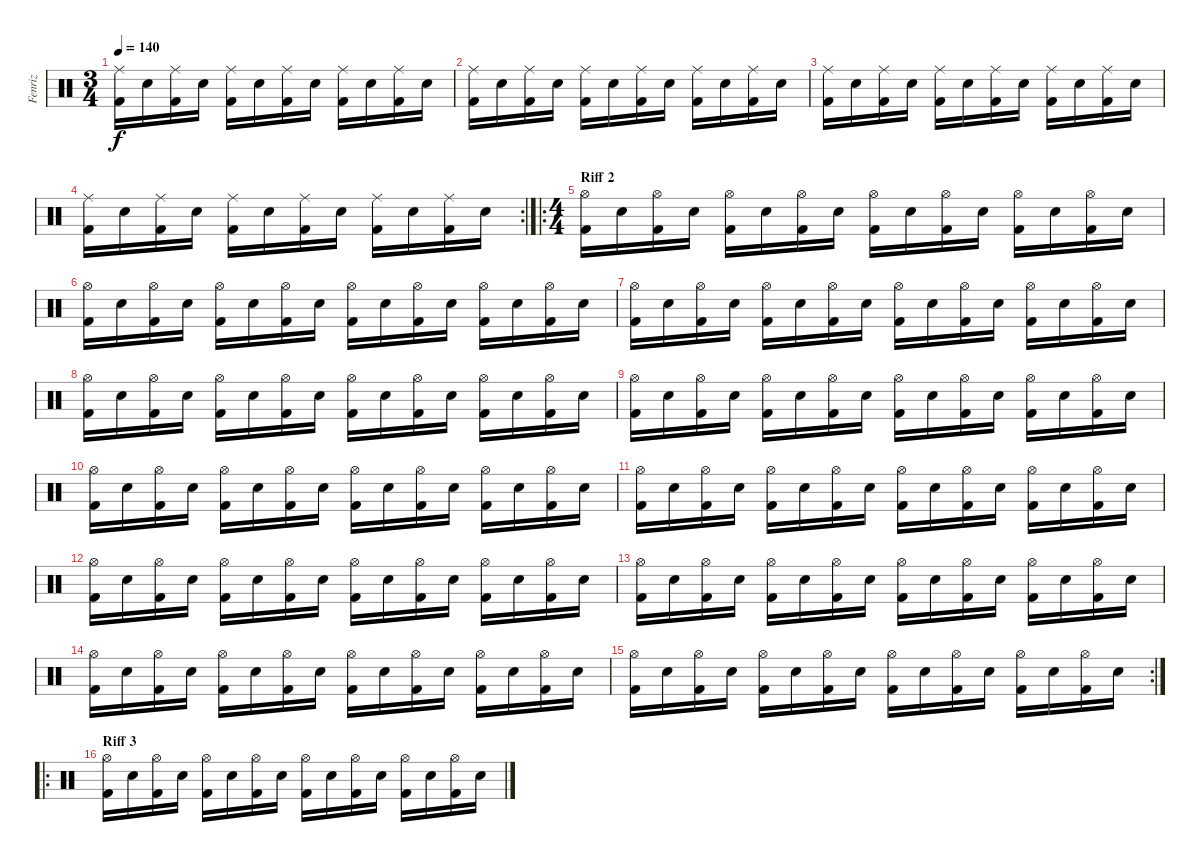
\track ("Fenriz" "Fenriz") {instrument percussion}
\staff {score}
\articulation defaults
\ts (3 4)
\tempo 140
\clef neutral
\ks c
("Ride (middle)" "Kick (hit) 2").16{dy f} "Snare (hit) 2".16 ("Ride (middle)" "Kick (hit) 2").16 "Snare (hit) 2".16 ("Ride (middle)" "Kick (hit) 2").16 "Snare (hit) 2".16 ("Ride (middle)" "Kick (hit) 2").16 "Snare (hit) 2".16 ("Ride (middle)" "Kick (hit) 2").16 "Snare (hit) 2".16 ("Ride (middle)" "Kick (hit) 2").16 "Snare (hit) 2".16 |
("Ride (middle)" "Kick (hit) 2").16 "Snare (hit) 2".16 ("Ride (middle)" "Kick (hit) 2").16 "Snare (hit) 2".16 ("Ride (middle)" "Kick (hit) 2").16 "Snare (hit) 2".16 ("Ride (middle)" "Kick (hit) 2").16 "Snare (hit) 2".16 ("Ride (middle)" "Kick (hit) 2").16 "Snare (hit) 2".16 ("Ride (middle)" "Kick (hit) 2").16 "Snare (hit) 2".16 |
("Ride (middle)" "Kick (hit) 2").16 "Snare (hit) 2".16 ("Ride (middle)" "Kick (hit) 2").16 "Snare (hit) 2".16 ("Ride (middle)" "Kick (hit) 2").16 "Snare (hit) 2".16 ("Ride (middle)" "Kick (hit) 2").16 "Snare (hit) 2".16 ("Ride (middle)" "Kick (hit) 2").16 "Snare (hit) 2".16 ("Ride (middle)" "Kick (hit) 2").16 "Snare (hit) 2".16 |
\rc 2
("Ride (middle)" "Kick (hit) 2").16 "Snare (hit) 2".16 ("Ride (middle)" "Kick (hit) 2").16 "Snare (hit) 2".16 ("Ride (middle)" "Kick (hit) 2").16 "Snare (hit) 2".16 ("Ride (middle)" "Kick (hit) 2").16 "Snare (hit) 2".16 ("Ride (middle)" "Kick (hit) 2").16 "Snare (hit) 2".16 ("Ride (middle)" "Kick (hit) 2").16 "Snare (hit) 2".16 |
\ro
\ts (4 4)
\section ("" "Riff 2")
("Hi-Hat (open)" "Kick (hit) 2").16 "Snare (hit) 2".16 ("Hi-Hat (open)" "Kick (hit) 2").16 "Snare (hit) 2".16 ("Hi-Hat (open)" "Kick (hit) 2").16 "Snare (hit) 2".16 ("Hi-Hat (open)" "Kick (hit) 2").16 "Snare (hit) 2".16 ("Hi-Hat (open)" "Kick (hit) 2").16 "Snare (hit) 2".16 ("Hi-Hat (open)" "Kick (hit) 2").16 "Snare (hit) 2".16 ("Hi-Hat (open)" "Kick (hit) 2").16 "Snare (hit) 2".16 ("Hi-Hat (open)" "Kick (hit) 2").16 "Snare (hit) 2".16 |
("Hi-Hat (open)" "Kick (hit) 2").16 "Snare (hit) 2".16 ("Hi-Hat (open)" "Kick (hit) 2").16 "Snare (hit) 2".16 ("Hi-Hat (open)" "Kick (hit) 2").16 "Snare (hit) 2".16 ("Hi-Hat (open)" "Kick (hit) 2").16 "Snare (hit) 2".16 ("Hi-Hat (open)" "Kick (hit) 2").16 "Snare (hit) 2".16 ("Hi-Hat (open)" "Kick (hit) 2").16 "Snare (hit) 2".16 ("Hi-Hat (open)" "Kick (hit) 2").16 "Snare (hit) 2".16 ("Hi-Hat (open)" "Kick (hit) 2").16 "Snare (hit) 2".16 |
("Hi-Hat (open)" "Kick (hit) 2").16 "Snare (hit) 2".16 ("Hi-Hat (open)" "Kick (hit) 2").16 "Snare (hit) 2".16 ("Hi-Hat (open)" "Kick (hit) 2").16 "Snare (hit) 2".16 ("Hi-Hat (open)" "Kick (hit) 2").16 "Snare (hit) 2".16 ("Hi-Hat (open)" "Kick (hit) 2").16 "Snare (hit) 2".16 ("Hi-Hat (open)" "Kick (hit) 2").16 "Snare (hit) 2".16 ("Hi-Hat (open)" "Kick (hit) 2").16 "Snare (hit) 2".16 ("Hi-Hat (open)" "Kick (hit) 2").16 "Snare (hit) 2".16 |
("Hi-Hat (open)" "Kick (hit) 2").16 "Snare (hit) 2".16 ("Hi-Hat (open)" "Kick (hit) 2").16 "Snare (hit) 2".16 ("Hi-Hat (open)" "Kick (hit) 2").16 "Snare (hit) 2".16 ("Hi-Hat (open)" "Kick (hit) 2").16 "Snare (hit) 2".16 ("Hi-Hat (open)" "Kick (hit) 2").16 "Snare (hit) 2".16 ("Hi-Hat (open)" "Kick (hit) 2").16 "Snare (hit) 2".16 ("Hi-Hat (open)" "Kick (hit) 2").16 "Snare (hit) 2".16 ("Hi-Hat (open)" "Kick (hit) 2").16 "Snare (hit) 2".16 |
("Hi-Hat (open)" "Kick (hit) 2").16 "Snare (hit) 2".16 ("Hi-Hat (open)" "Kick (hit) 2").16 "Snare (hit) 2".16 ("Hi-Hat (open)" "Kick (hit) 2").16 "Snare (hit) 2".16 ("Hi-Hat (open)" "Kick (hit) 2").16 "Snare (hit) 2".16 ("Hi-Hat (open)" "Kick (hit) 2").16 "Snare (hit) 2".16 ("Hi-Hat (open)" "Kick (hit) 2").16 "Snare (hit) 2".16 ("Hi-Hat (open)" "Kick (hit) 2").16 "Snare (hit) 2".16 ("Hi-Hat (open)" "Kick (hit) 2").16 "Snare (hit) 2".16 |
("Hi-Hat (open)" "Kick (hit) 2").16 "Snare (hit) 2".16 ("Hi-Hat (open)" "Kick (hit) 2").16 "Snare (hit) 2".16 ("Hi-Hat (open)" "Kick (hit) 2").16 "Snare (hit) 2".16 ("Hi-Hat (open)" "Kick (hit) 2").16 "Snare (hit) 2".16 ("Hi-Hat (open)" "Kick (hit) 2").16 "Snare (hit) 2".16 ("Hi-Hat (open)" "Kick (hit) 2").16 "Snare (hit) 2".16 ("Hi-Hat (open)" "Kick (hit) 2").16 "Snare (hit) 2".16 ("Hi-Hat (open)" "Kick (hit) 2").16 "Snare (hit) 2".16 |
("Hi-Hat (open)" "Kick (hit) 2").16 "Snare (hit) 2".16 ("Hi-Hat (open)" "Kick (hit) 2").16 "Snare (hit) 2".16 ("Hi-Hat (open)" "Kick (hit) 2").16 "Snare (hit) 2".16 ("Hi-Hat (open)" "Kick (hit) 2").16 "Snare (hit) 2".16 ("Hi-Hat (open)" "Kick (hit) 2").16 "Snare (hit) 2".16 ("Hi-Hat (open)" "Kick (hit) 2").16 "Snare (hit) 2".16 ("Hi-Hat (open)" "Kick (hit) 2").16 "Snare (hit) 2".16 ("Hi-Hat (open)" "Kick (hit) 2").16 "Snare (hit) 2".16 |
("Hi-Hat (open)" "Kick (hit) 2").16 "Snare (hit) 2".16 ("Hi-Hat (open)" "Kick (hit) 2").16 "Snare (hit) 2".16 ("Hi-Hat (open)" "Kick (hit) 2").16 "Snare (hit) 2".16 ("Hi-Hat (open)" "Kick (hit) 2").16 "Snare (hit) 2".16 ("Hi-Hat (open)" "Kick (hit) 2").16 "Snare (hit) 2".16 ("Hi-Hat (open)" "Kick (hit) 2").16 "Snare (hit) 2".16 ("Hi-Hat (open)" "Kick (hit) 2").16 "Snare (hit) 2".16 ("Hi-Hat (open)" "Kick (hit) 2").16 "Snare (hit) 2".16 |
("Hi-Hat (open)" "Kick (hit) 2").16 "Snare (hit) 2".16 ("Hi-Hat (open)" "Kick (hit) 2").16 "Snare (hit) 2".16 ("Hi-Hat (open)" "Kick (hit) 2").16 "Snare (hit) 2".16 ("Hi-Hat (open)" "Kick (hit) 2").16 "Snare (hit) 2".16 ("Hi-Hat (open)" "Kick (hit) 2").16 "Snare (hit) 2".16 ("Hi-Hat (open)" "Kick (hit) 2").16 "Snare (hit) 2".16 ("Hi-Hat (open)" "Kick (hit) 2").16 "Snare (hit) 2".16 ("Hi-Hat (open)" "Kick (hit) 2").16 "Snare (hit) 2".16 |
("Hi-Hat (open)" "Kick (hit) 2").16 "Snare (hit) 2".16 ("Hi-Hat (open)" "Kick (hit) 2").16 "Snare (hit) 2".16 ("Hi-Hat (open)" "Kick (hit) 2").16 "Snare (hit) 2".16 ("Hi-Hat (open)" "Kick (hit) 2").16 "Snare (hit) 2".16 ("Hi-Hat (open)" "Kick (hit) 2").16 "Snare (hit) 2".16 ("Hi-Hat (open)" "Kick (hit) 2").16 "Snare (hit) 2".16 ("Hi-Hat (open)" "Kick (hit) 2").16 "Snare (hit) 2".16 ("Hi-Hat (open)" "Kick (hit) 2").16 "Snare (hit) 2".16 |
\rc 2
("Hi-Hat (open)" "Kick (hit) 2").16 "Snare (hit) 2".16 ("Hi-Hat (open)" "Kick (hit) 2").16 "Snare (hit) 2".16 ("Hi-Hat (open)" "Kick (hit) 2").16 "Snare (hit) 2".16 ("Hi-Hat (open)" "Kick (hit) 2").16 "Snare (hit) 2".16 ("Hi-Hat (open)" "Kick (hit) 2").16 "Snare (hit) 2".16 ("Hi-Hat (open)" "Kick (hit) 2").16 "Snare (hit) 2".16 ("Hi-Hat (open)" "Kick (hit) 2").16 "Snare (hit) 2".16 ("Hi-Hat (open)" "Kick (hit) 2").16 "Snare (hit) 2".16 |
\ro
\section ("" "Riff 3")
("Hi-Hat (open)" "Kick (hit) 2").16 "Snare (hit) 2".16 ("Hi-Hat (open)" "Kick (hit) 2").16 "Snare (hit) 2".16 ("Hi-Hat (open)" "Kick (hit) 2").16 "Snare (hit) 2".16 ("Hi-Hat (open)" "Kick (hit) 2").16 "Snare (hit) 2".16 ("Hi-Hat (open)" "Kick (hit) 2").16 "Snare (hit) 2".16 ("Hi-Hat (open)" "Kick (hit) 2").16 "Snare (hit) 2".16 ("Hi-Hat (open)" "Kick (hit) 2").16 "Snare (hit) 2".16 ("Hi-Hat (open)" "Kick (hit) 2").16 "Snare (hit) 2".16
